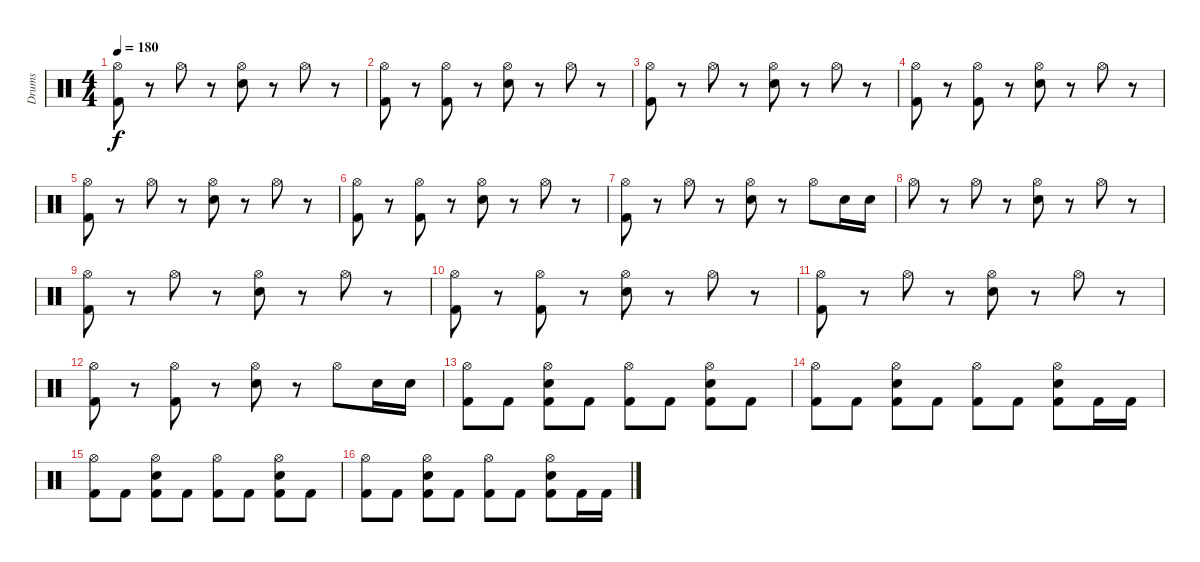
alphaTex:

\track ("Drums" "Drums") {instrument percussion}
\staff {score}
\articulation defaults
\ts (4 4)
\tempo 180
\clef neutral
\ks c
("Hi-Hat (open)" "Kick (hit) 2").8{dy f} r.8 "Hi-Hat (open)".8 r.8 ("Hi-Hat (open)" "Electric Snare (hit)").8 r.8 "Hi-Hat (open)".8 r.8 |
("Hi-Hat (open)" "Kick (hit) 2").8 r.8 ("Hi-Hat (open)" "Kick (hit) 2").8 r.8 ("Hi-Hat (open)" "Electric Snare (hit)").8 r.8 "Hi-Hat (open)".8 r.8 |
("Hi-Hat (open)" "Kick (hit) 2").8 r.8 "Hi-Hat (open)".8 r.8 ("Hi-Hat (open)" "Electric Snare (hit)").8 r.8 "Hi-Hat (open)".8 r.8 |
("Hi-Hat (open)" "Kick (hit) 2").8 r.8 ("Hi-Hat (open)" "Kick (hit) 2").8 r.8 ("Hi-Hat (open)" "Electric Snare (hit)").8 r.8 "Hi-Hat (open)".8 r.8 |
("Hi-Hat (open)" "Kick (hit) 2").8 r.8 "Hi-Hat (open)".8 r.8 ("Hi-Hat (open)" "Electric Snare (hit)").8 r.8 "Hi-Hat (open)".8 r.8 |
("Hi-Hat (open)" "Kick (hit) 2").8 r.8 ("Hi-Hat (open)" "Kick (hit) 2").8 r.8 ("Hi-Hat (open)" "Electric Snare (hit)").8 r.8 "Hi-Hat (open)".8 r.8 |
("Hi-Hat (open)" "Kick (hit) 2").8 r.8 "Hi-Hat (open)".8 r.8 ("Hi-Hat (open)" "Electric Snare (hit)").8 r.8 "Hi-Hat (open)".8 "Electric Snare (hit)".16 "Electric Snare (hit)".16 |
"Hi-Hat (open)".8 r.8 "Hi-Hat (open)".8 r.8 ("Hi-Hat (open)" "Electric Snare (hit)").8 r.8 "Hi-Hat (open)".8 r.8 |
("Hi-Hat (open)" "Kick (hit) 2").8 r.8 "Hi-Hat (open)".8 r.8 ("Hi-Hat (open)" "Electric Snare (hit)").8 r.8 "Hi-Hat (open)".8 r.8 |
("Hi-Hat (open)" "Kick (hit) 2").8 r.8 ("Hi-Hat (open)" "Kick (hit) 2").8 r.8 ("Hi-Hat (open)" "Electric Snare (hit)").8 r.8 "Hi-Hat (open)".8 r.8 |
("Hi-Hat (open)" "Kick (hit) 2").8 r.8 "Hi-Hat (open)".8 r.8 ("Hi-Hat (open)" "Electric Snare (hit)").8 r.8 "Hi-Hat (open)".8 r.8 |
("Hi-Hat (open)" "Kick (hit) 2").8 r.8 ("Hi-Hat (open)" "Kick (hit) 2").8 r.8 ("Hi-Hat (open)" "Electric Snare (hit)").8 r.8 "Hi-Hat (open)".8 "Electric Snare (hit)".16 "Electric Snare (hit)".16 |
("Hi-Hat (open)" "Kick (hit) 2").8 "Kick (hit) 2".8 ("Hi-Hat (open)" "Electric Snare (hit)" "Kick (hit) 2").8 "Kick (hit) 2".8 ("Hi-Hat (open)" "Kick (hit) 2").8 "Kick (hit) 2".8 ("Hi-Hat (open)" "Electric Snare (hit)" "Kick (hit) 2").8 "Kick (hit) 2".8 |
("Hi-Hat (open)" "Kick (hit) 2").8 "Kick (hit) 2".8 ("Hi-Hat (open)" "Electric Snare (hit)" "Kick (hit) 2").8 "Kick (hit) 2".8 ("Hi-Hat (open)" "Kick (hit) 2").8 "Kick (hit) 2".8 ("Hi-Hat (open)" "Electric Snare (hit)" "Kick (hit) 2").8 "Kick (hit) 2".16 "Kick (hit) 2".16 |
("Hi-Hat (open)" "Kick (hit) 2").8 "Kick (hit) 2".8 ("Hi-Hat (open)" "Electric Snare (hit)" "Kick (hit) 2").8 "Kick (hit) 2".8 ("Hi-Hat (open)" "Kick (hit) 2").8 "Kick (hit) 2".8 ("Hi-Hat (open)" "Electric Snare (hit)" "Kick (hit) 2").8 "Kick (hit) 2".8 |
("Hi-Hat (open)" "Kick (hit) 2").8 "Kick (hit) 2".8 ("Hi-Hat (open)" "Electric Snare (hit)" "Kick (hit) 2").8 "Kick (hit) 2".8 ("Hi-Hat (open)" "Kick (hit) 2").8 "Kick (hit) 2".8 ("Hi-Hat (open)" "Electric Snare (hit)" "Kick (hit) 2").8 "Kick (hit) 2".16 "Kick (hit) 2".16
